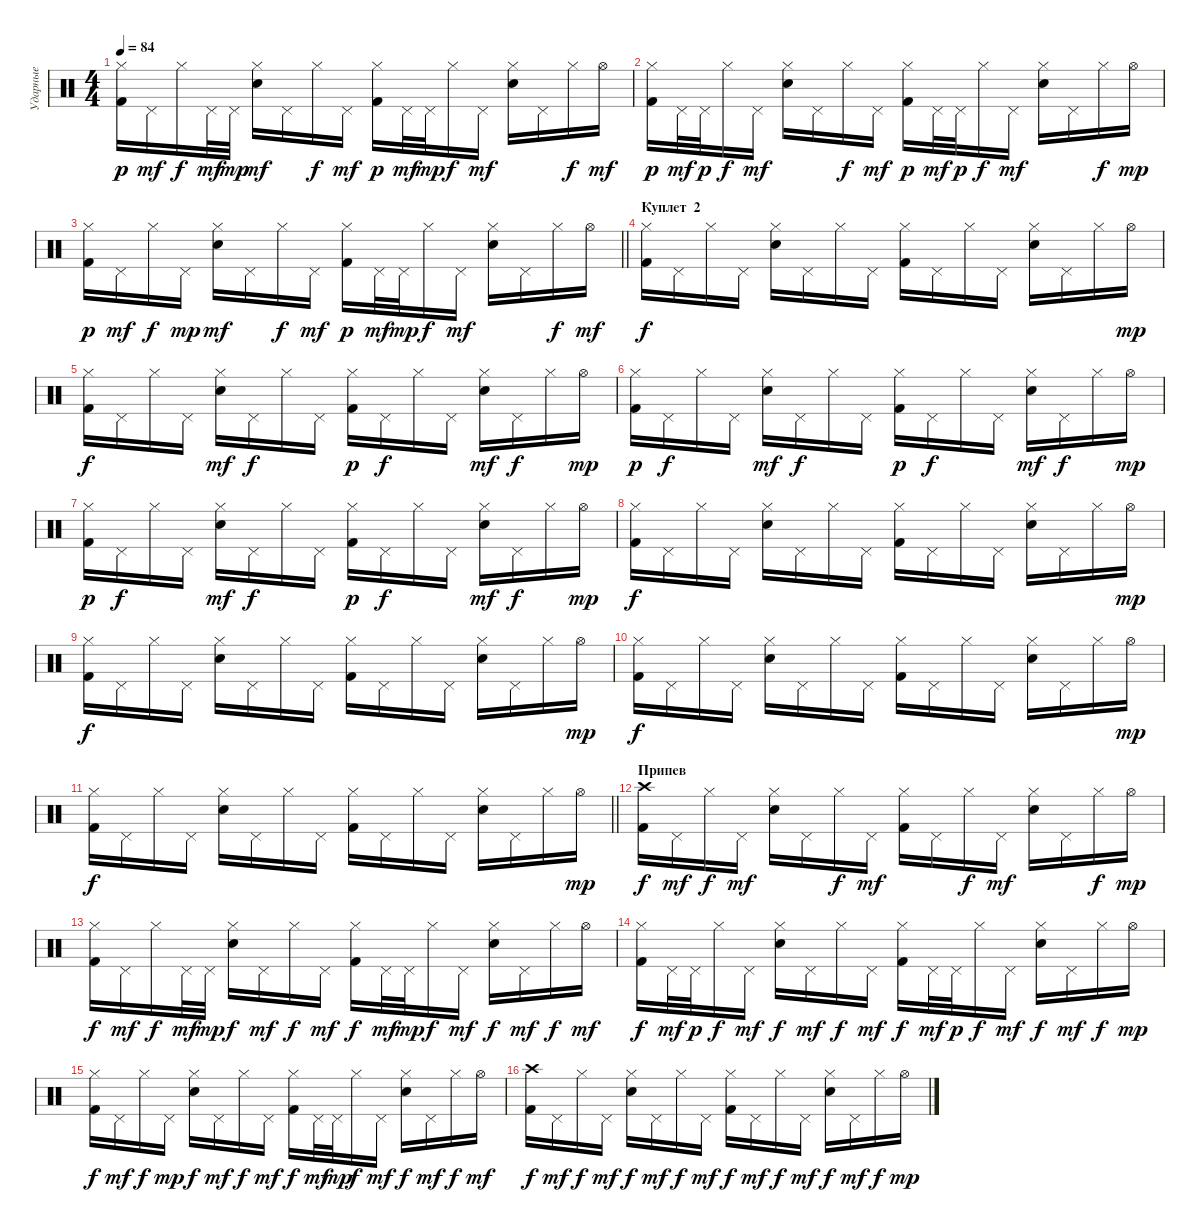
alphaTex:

\track ("Ударные" "Ударные") {instrument percussion}
\staff {score}
\articulation defaults
\ts (4 4)
\tempo 84
\clef neutral
\ks c
("Hi-Hat (closed)" "Kick (hit) 2").16{dy p} "Pedal Hi-Hat (hit)".16{dy mf} "Hi-Hat (closed)".16{dy f} "Pedal Hi-Hat (hit)".32{dy mf} "Pedal Hi-Hat (hit)".32{dy mp} ("Hi-Hat (closed)" "Electric Snare (hit)").16{dy mf} "Pedal Hi-Hat (hit)".16 "Hi-Hat (closed)".16{dy f} "Pedal Hi-Hat (hit)".16{dy mf} ("Hi-Hat (closed)" "Kick (hit) 2").16{dy p} "Pedal Hi-Hat (hit)".32{dy mf} "Pedal Hi-Hat (hit)".32{dy mp} "Hi-Hat (closed)".16{dy f} "Pedal Hi-Hat (hit)".16{dy mf} ("Hi-Hat (closed)" "Electric Snare (hit)").16 "Pedal Hi-Hat (hit)".16 "Hi-Hat (closed)".16{dy f} "Hi-Hat (open)".16{dy mf} |
("Hi-Hat (closed)" "Kick (hit) 2").16{dy p} "Pedal Hi-Hat (hit)".32{dy mf} "Pedal Hi-Hat (hit)".32{dy p} "Hi-Hat (closed)".16{dy f} "Pedal Hi-Hat (hit)".16{dy mf} ("Hi-Hat (closed)" "Electric Snare (hit)").16 "Pedal Hi-Hat (hit)".16 "Hi-Hat (closed)".16{dy f} "Pedal Hi-Hat (hit)".16{dy mf} ("Hi-Hat (closed)" "Kick (hit) 2").16{dy p} "Pedal Hi-Hat (hit)".32{dy mf} "Pedal Hi-Hat (hit)".32{dy p} "Hi-Hat (closed)".16{dy f} "Pedal Hi-Hat (hit)".16{dy mf} ("Hi-Hat (closed)" "Electric Snare (hit)").16 "Pedal Hi-Hat (hit)".16 "Hi-Hat (closed)".16{dy f} "Hi-Hat (open)".16{dy mp} |
\barLineRight lightlight
("Hi-Hat (closed)" "Kick (hit) 2").16{dy p} "Pedal Hi-Hat (hit)".16{dy mf} "Hi-Hat (closed)".16{dy f} "Pedal Hi-Hat (hit)".16{dy mp} ("Hi-Hat (closed)" "Electric Snare (hit)").16{dy mf} "Pedal Hi-Hat (hit)".16 "Hi-Hat (closed)".16{dy f} "Pedal Hi-Hat (hit)".16{dy mf} ("Hi-Hat (closed)" "Kick (hit) 2").16{dy p} "Pedal Hi-Hat (hit)".32{dy mf} "Pedal Hi-Hat (hit)".32{dy mp} "Hi-Hat (closed)".16{dy f} "Pedal Hi-Hat (hit)".16{dy mf} ("Hi-Hat (closed)" "Electric Snare (hit)").16 "Pedal Hi-Hat (hit)".16 "Hi-Hat (closed)".16{dy f} "Hi-Hat (open)".16{dy mf} |
\section ("" "Куплет  2")
("Hi-Hat (closed)" "Kick (hit) 2").16{dy f} "Pedal Hi-Hat (hit)".16 "Hi-Hat (closed)".16 "Pedal Hi-Hat (hit)".16 ("Hi-Hat (closed)" "Electric Snare (hit)").16 "Pedal Hi-Hat (hit)".16 "Hi-Hat (closed)".16 "Pedal Hi-Hat (hit)".16 ("Hi-Hat (closed)" "Kick (hit) 2").16 "Pedal Hi-Hat (hit)".16 "Hi-Hat (closed)".16 "Pedal Hi-Hat (hit)".16 ("Hi-Hat (closed)" "Electric Snare (hit)").16 "Pedal Hi-Hat (hit)".16 "Hi-Hat (closed)".16 "Hi-Hat (open)".16{dy mp} |
("Hi-Hat (closed)" "Kick (hit) 2").16{dy f} "Pedal Hi-Hat (hit)".16 "Hi-Hat (closed)".16 "Pedal Hi-Hat (hit)".16 ("Hi-Hat (closed)" "Snare (hit) 2").16{dy mf} "Pedal Hi-Hat (hit)".16{dy f} "Hi-Hat (closed)".16 "Pedal Hi-Hat (hit)".16 ("Hi-Hat (closed)" "Kick (hit) 2").16{dy p} "Pedal Hi-Hat (hit)".16{dy f} "Hi-Hat (closed)".16 "Pedal Hi-Hat (hit)".16 ("Hi-Hat (closed)" "Snare (hit) 2").16{dy mf} "Pedal Hi-Hat (hit)".16{dy f} "Hi-Hat (closed)".16 "Hi-Hat (open)".16{dy mp} |
("Hi-Hat (closed)" "Kick (hit) 2").16{dy p} "Pedal Hi-Hat (hit)".16{dy f} "Hi-Hat (closed)".16 "Pedal Hi-Hat (hit)".16 ("Hi-Hat (closed)" "Snare (hit) 2").16{dy mf} "Pedal Hi-Hat (hit)".16{dy f} "Hi-Hat (closed)".16 "Pedal Hi-Hat (hit)".16 ("Hi-Hat (closed)" "Kick (hit) 2").16{dy p} "Pedal Hi-Hat (hit)".16{dy f} "Hi-Hat (closed)".16 "Pedal Hi-Hat (hit)".16 ("Hi-Hat (closed)" "Snare (hit) 2").16{dy mf} "Pedal Hi-Hat (hit)".16{dy f} "Hi-Hat (closed)".16 "Hi-Hat (open)".16{dy mp} |
("Hi-Hat (closed)" "Kick (hit) 2").16{dy p} "Pedal Hi-Hat (hit)".16{dy f} "Hi-Hat (closed)".16 "Pedal Hi-Hat (hit)".16 ("Hi-Hat (closed)" "Snare (hit) 2").16{dy mf} "Pedal Hi-Hat (hit)".16{dy f} "Hi-Hat (closed)".16 "Pedal Hi-Hat (hit)".16 ("Hi-Hat (closed)" "Kick (hit) 2").16{dy p} "Pedal Hi-Hat (hit)".16{dy f} "Hi-Hat (closed)".16 "Pedal Hi-Hat (hit)".16 ("Hi-Hat (closed)" "Snare (hit) 2").16{dy mf} "Pedal Hi-Hat (hit)".16{dy f} "Hi-Hat (closed)".16 "Hi-Hat (open)".16{dy mp} |
("Hi-Hat (closed)" "Kick (hit) 2").16{dy f} "Pedal Hi-Hat (hit)".16 "Hi-Hat (closed)".16 "Pedal Hi-Hat (hit)".16 ("Hi-Hat (closed)" "Snare (hit) 2").16 "Pedal Hi-Hat (hit)".16 "Hi-Hat (closed)".16 "Pedal Hi-Hat (hit)".16 ("Hi-Hat (closed)" "Kick (hit) 2").16 "Pedal Hi-Hat (hit)".16 "Hi-Hat (closed)".16 "Pedal Hi-Hat (hit)".16 ("Hi-Hat (closed)" "Snare (hit) 2").16 "Pedal Hi-Hat (hit)".16 "Hi-Hat (closed)".16 "Hi-Hat (open)".16{dy mp} |
("Hi-Hat (closed)" "Kick (hit) 2").16{dy f} "Pedal Hi-Hat (hit)".16 "Hi-Hat (closed)".16 "Pedal Hi-Hat (hit)".16 ("Hi-Hat (closed)" "Snare (hit) 2").16 "Pedal Hi-Hat (hit)".16 "Hi-Hat (closed)".16 "Pedal Hi-Hat (hit)".16 ("Hi-Hat (closed)" "Kick (hit) 2").16 "Pedal Hi-Hat (hit)".16 "Hi-Hat (closed)".16 "Pedal Hi-Hat (hit)".16 ("Hi-Hat (closed)" "Snare (hit) 2").16 "Pedal Hi-Hat (hit)".16 "Hi-Hat (closed)".16 "Hi-Hat (open)".16{dy mp} |
("Hi-Hat (closed)" "Kick (hit) 2").16{dy f} "Pedal Hi-Hat (hit)".16 "Hi-Hat (closed)".16 "Pedal Hi-Hat (hit)".16 ("Hi-Hat (closed)" "Snare (hit) 2").16 "Pedal Hi-Hat (hit)".16 "Hi-Hat (closed)".16 "Pedal Hi-Hat (hit)".16 ("Hi-Hat (closed)" "Kick (hit) 2").16 "Pedal Hi-Hat (hit)".16 "Hi-Hat (closed)".16 "Pedal Hi-Hat (hit)".16 ("Hi-Hat (closed)" "Snare (hit) 2").16 "Pedal Hi-Hat (hit)".16 "Hi-Hat (closed)".16 "Hi-Hat (open)".16{dy mp} |
\barLineRight lightlight
("Hi-Hat (closed)" "Kick (hit) 2").16{dy f} "Pedal Hi-Hat (hit)".16 "Hi-Hat (closed)".16 "Pedal Hi-Hat (hit)".16 ("Hi-Hat (closed)" "Snare (hit) 2").16 "Pedal Hi-Hat (hit)".16 "Hi-Hat (closed)".16 "Pedal Hi-Hat (hit)".16 ("Hi-Hat (closed)" "Kick (hit) 2").16 "Pedal Hi-Hat (hit)".16 "Hi-Hat (closed)".16 "Pedal Hi-Hat (hit)".16 ("Hi-Hat (closed)" "Snare (hit) 2").16 "Pedal Hi-Hat (hit)".16 "Hi-Hat (closed)".16 "Hi-Hat (open)".16{dy mp} |
\section ("" "Припев")
("Crash high (hit)" "Kick (hit) 2").16{dy f} "Pedal Hi-Hat (hit)".16{dy mf} "Hi-Hat (closed)".16{dy f} "Pedal Hi-Hat (hit)".16{dy mf} ("Hi-Hat (closed)" "Electric Snare (hit)").16 "Pedal Hi-Hat (hit)".16 "Hi-Hat (closed)".16{dy f} "Pedal Hi-Hat (hit)".16{dy mf} ("Hi-Hat (closed)" "Kick (hit) 2").16 "Pedal Hi-Hat (hit)".16 "Hi-Hat (closed)".16{dy f} "Pedal Hi-Hat (hit)".16{dy mf} ("Hi-Hat (closed)" "Electric Snare (hit)").16 "Pedal Hi-Hat (hit)".16 "Hi-Hat (closed)".16{dy f} "Hi-Hat (open)".16{dy mp} |
("Hi-Hat (closed)" "Kick (hit) 2").16{dy f} "Pedal Hi-Hat (hit)".16{dy mf} "Hi-Hat (closed)".16{dy f} "Pedal Hi-Hat (hit)".32{dy mf} "Pedal Hi-Hat (hit)".32{dy mp} ("Hi-Hat (closed)" "Electric Snare (hit)").16{dy f} "Pedal Hi-Hat (hit)".16{dy mf} "Hi-Hat (closed)".16{dy f} "Pedal Hi-Hat (hit)".16{dy mf} ("Hi-Hat (closed)" "Kick (hit) 2").16{dy f} "Pedal Hi-Hat (hit)".32{dy mf} "Pedal Hi-Hat (hit)".32{dy mp} "Hi-Hat (closed)".16{dy f} "Pedal Hi-Hat (hit)".16{dy mf} ("Hi-Hat (closed)" "Electric Snare (hit)").16{dy f} "Pedal Hi-Hat (hit)".16{dy mf} "Hi-Hat (closed)".16{dy f} "Hi-Hat (open)".16{dy mf} |
("Hi-Hat (closed)" "Kick (hit) 2").16{dy f} "Pedal Hi-Hat (hit)".32{dy mf} "Pedal Hi-Hat (hit)".32{dy p} "Hi-Hat (closed)".16{dy f} "Pedal Hi-Hat (hit)".16{dy mf} ("Hi-Hat (closed)" "Electric Snare (hit)").16{dy f} "Pedal Hi-Hat (hit)".16{dy mf} "Hi-Hat (closed)".16{dy f} "Pedal Hi-Hat (hit)".16{dy mf} ("Hi-Hat (closed)" "Kick (hit) 2").16{dy f} "Pedal Hi-Hat (hit)".32{dy mf} "Pedal Hi-Hat (hit)".32{dy p} "Hi-Hat (closed)".16{dy f} "Pedal Hi-Hat (hit)".16{dy mf} ("Hi-Hat (closed)" "Electric Snare (hit)").16{dy f} "Pedal Hi-Hat (hit)".16{dy mf} "Hi-Hat (closed)".16{dy f} "Hi-Hat (open)".16{dy mp} |
("Hi-Hat (closed)" "Kick (hit) 2").16{dy f} "Pedal Hi-Hat (hit)".16{dy mf} "Hi-Hat (closed)".16{dy f} "Pedal Hi-Hat (hit)".16{dy mp} ("Hi-Hat (closed)" "Electric Snare (hit)").16{dy f} "Pedal Hi-Hat (hit)".16{dy mf} "Hi-Hat (closed)".16{dy f} "Pedal Hi-Hat (hit)".16{dy mf} ("Hi-Hat (closed)" "Kick (hit) 2").16{dy f} "Pedal Hi-Hat (hit)".32{dy mf} "Pedal Hi-Hat (hit)".32{dy mp} "Hi-Hat (closed)".16{dy f} "Pedal Hi-Hat (hit)".16{dy mf} ("Hi-Hat (closed)" "Electric Snare (hit)").16{dy f} "Pedal Hi-Hat (hit)".16{dy mf} "Hi-Hat (closed)".16{dy f} "Hi-Hat (open)".16{dy mf} |
("Crash high (hit)" "Kick (hit) 2").16{dy f} "Pedal Hi-Hat (hit)".16{dy mf} "Hi-Hat (closed)".16{dy f} "Pedal Hi-Hat (hit)".16{dy mf} ("Hi-Hat (closed)" "Electric Snare (hit)").16{dy f} "Pedal Hi-Hat (hit)".16{dy mf} "Hi-Hat (closed)".16{dy f} "Pedal Hi-Hat (hit)".16{dy mf} ("Hi-Hat (closed)" "Kick (hit) 2").16{dy f} "Pedal Hi-Hat (hit)".16{dy mf} "Hi-Hat (closed)".16{dy f} "Pedal Hi-Hat (hit)".16{dy mf} ("Hi-Hat (closed)" "Electric Snare (hit)").16{dy f} "Pedal Hi-Hat (hit)".16{dy mf} "Hi-Hat (closed)".16{dy f} "Hi-Hat (open)".16{dy mp}
